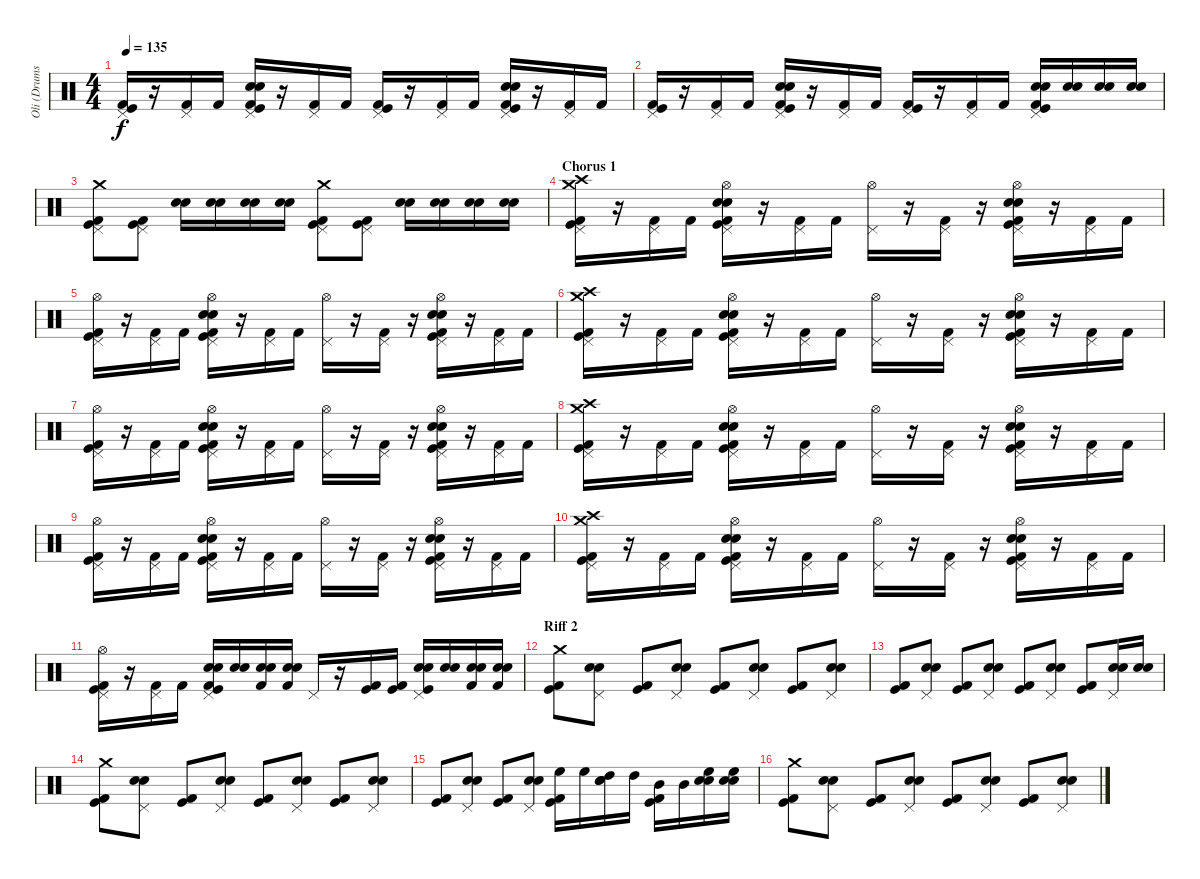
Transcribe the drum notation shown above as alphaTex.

\track ("Oli (Drums)" "Oli (Drums") {instrument percussion}
\staff {score}
\articulation defaults
\ts (4 4)
\tempo 135
\clef neutral
\ks c
("Kick (hit) 2" "Kick (hit)" "Pedal Hi-Hat (hit)").16{dy f} r.16 ("Kick (hit) 2" "Pedal Hi-Hat (hit)").16 "Kick (hit) 2".16 ("Kick (hit) 2" "Snare (hit) 2" "Pedal Hi-Hat (hit)" "Electric Snare (hit)" "Kick (hit)").16 r.16 ("Kick (hit) 2" "Pedal Hi-Hat (hit)").16 "Kick (hit) 2".16 ("Kick (hit) 2" "Kick (hit)" "Pedal Hi-Hat (hit)").16 r.16 ("Kick (hit) 2" "Pedal Hi-Hat (hit)").16 "Kick (hit) 2".16 ("Kick (hit) 2" "Snare (hit) 2" "Pedal Hi-Hat (hit)" "Electric Snare (hit)" "Kick (hit)").16 r.16 ("Kick (hit) 2" "Pedal Hi-Hat (hit)").16 "Kick (hit) 2".16 |
("Kick (hit) 2" "Kick (hit)" "Pedal Hi-Hat (hit)").16 r.16 ("Kick (hit) 2" "Pedal Hi-Hat (hit)").16 "Kick (hit) 2".16 ("Kick (hit) 2" "Snare (hit) 2" "Pedal Hi-Hat (hit)" "Electric Snare (hit)" "Kick (hit)").16 r.16 ("Kick (hit) 2" "Pedal Hi-Hat (hit)").16 "Kick (hit) 2".16 ("Kick (hit) 2" "Kick (hit)" "Pedal Hi-Hat (hit)").16 r.16 ("Kick (hit) 2" "Pedal Hi-Hat (hit)").16 "Kick (hit) 2".16 ("Kick (hit) 2" "Snare (hit) 2" "Pedal Hi-Hat (hit)" "Electric Snare (hit)" "Kick (hit)").16 ("Electric Snare (hit)" "Snare (hit) 2").16 ("Electric Snare (hit)" "Snare (hit) 2").16 ("Electric Snare (hit)" "Snare (hit) 2").16 |
("Kick (hit) 2" "Kick (hit)" "Pedal Hi-Hat (hit)" "Crash medium (hit)").8 ("Kick (hit) 2" "Kick (hit)" "Pedal Hi-Hat (hit)").8 ("Snare (hit) 2" "Electric Snare (hit)").16 ("Snare (hit) 2" "Electric Snare (hit)").16 ("Snare (hit) 2" "Electric Snare (hit)").16 ("Snare (hit) 2" "Electric Snare (hit)").16 ("Kick (hit) 2" "Kick (hit)" "Pedal Hi-Hat (hit)" "Crash medium (hit)").8 ("Kick (hit) 2" "Kick (hit)" "Pedal Hi-Hat (hit)").8 ("Snare (hit) 2" "Electric Snare (hit)").16 ("Snare (hit) 2" "Electric Snare (hit)").16 ("Snare (hit) 2" "Electric Snare (hit)").16 ("Snare (hit) 2" "Electric Snare (hit)").16 |
\section ("" "Chorus 1")
("Kick (hit) 2" "Kick (hit)" "Pedal Hi-Hat (hit)" "Crash medium (hit)" "Crash high (hit)").16 r.16 ("Kick (hit) 2" "Pedal Hi-Hat (hit)").16 "Kick (hit) 2".16 ("Kick (hit) 2" "Snare (hit) 2" "Pedal Hi-Hat (hit)" "Electric Snare (hit)" "Kick (hit)" "Hi-Hat (open)").16 r.16 ("Kick (hit) 2" "Pedal Hi-Hat (hit)").16 "Kick (hit) 2".16 ("Pedal Hi-Hat (hit)" "Hi-Hat (open)").16 r.16 ("Kick (hit) 2" "Pedal Hi-Hat (hit)").16 r.16 ("Kick (hit) 2" "Snare (hit) 2" "Pedal Hi-Hat (hit)" "Electric Snare (hit)" "Kick (hit)" "Hi-Hat (open)").16 r.16 ("Kick (hit) 2" "Pedal Hi-Hat (hit)").16 "Kick (hit) 2".16 |
("Kick (hit) 2" "Kick (hit)" "Pedal Hi-Hat (hit)" "Hi-Hat (open)").16 r.16 ("Kick (hit) 2" "Pedal Hi-Hat (hit)").16 "Kick (hit) 2".16 ("Kick (hit) 2" "Snare (hit) 2" "Pedal Hi-Hat (hit)" "Electric Snare (hit)" "Kick (hit)" "Hi-Hat (open)").16 r.16 ("Kick (hit) 2" "Pedal Hi-Hat (hit)").16 "Kick (hit) 2".16 ("Pedal Hi-Hat (hit)" "Hi-Hat (open)").16 r.16 ("Kick (hit) 2" "Pedal Hi-Hat (hit)").16 r.16 ("Kick (hit) 2" "Snare (hit) 2" "Pedal Hi-Hat (hit)" "Electric Snare (hit)" "Kick (hit)" "Hi-Hat (open)").16 r.16 ("Kick (hit) 2" "Pedal Hi-Hat (hit)").16 "Kick (hit) 2".16 |
("Kick (hit) 2" "Kick (hit)" "Pedal Hi-Hat (hit)" "Crash medium (hit)" "Crash high (hit)").16 r.16 ("Kick (hit) 2" "Pedal Hi-Hat (hit)").16 "Kick (hit) 2".16 ("Kick (hit) 2" "Snare (hit) 2" "Pedal Hi-Hat (hit)" "Electric Snare (hit)" "Kick (hit)" "Hi-Hat (open)").16 r.16 ("Kick (hit) 2" "Pedal Hi-Hat (hit)").16 "Kick (hit) 2".16 ("Pedal Hi-Hat (hit)" "Hi-Hat (open)").16 r.16 ("Kick (hit) 2" "Pedal Hi-Hat (hit)").16 r.16 ("Kick (hit) 2" "Snare (hit) 2" "Pedal Hi-Hat (hit)" "Electric Snare (hit)" "Kick (hit)" "Hi-Hat (open)").16 r.16 ("Kick (hit) 2" "Pedal Hi-Hat (hit)").16 "Kick (hit) 2".16 |
("Kick (hit) 2" "Kick (hit)" "Pedal Hi-Hat (hit)" "Hi-Hat (open)").16 r.16 ("Kick (hit) 2" "Pedal Hi-Hat (hit)").16 "Kick (hit) 2".16 ("Kick (hit) 2" "Snare (hit) 2" "Pedal Hi-Hat (hit)" "Electric Snare (hit)" "Kick (hit)" "Hi-Hat (open)").16 r.16 ("Kick (hit) 2" "Pedal Hi-Hat (hit)").16 "Kick (hit) 2".16 ("Pedal Hi-Hat (hit)" "Hi-Hat (open)").16 r.16 ("Kick (hit) 2" "Pedal Hi-Hat (hit)").16 r.16 ("Kick (hit) 2" "Snare (hit) 2" "Pedal Hi-Hat (hit)" "Electric Snare (hit)" "Kick (hit)" "Hi-Hat (open)").16 r.16 ("Kick (hit) 2" "Pedal Hi-Hat (hit)").16 "Kick (hit) 2".16 |
("Kick (hit) 2" "Kick (hit)" "Pedal Hi-Hat (hit)" "Crash medium (hit)" "Crash high (hit)").16 r.16 ("Kick (hit) 2" "Pedal Hi-Hat (hit)").16 "Kick (hit) 2".16 ("Kick (hit) 2" "Snare (hit) 2" "Pedal Hi-Hat (hit)" "Electric Snare (hit)" "Kick (hit)" "Hi-Hat (open)").16 r.16 ("Kick (hit) 2" "Pedal Hi-Hat (hit)").16 "Kick (hit) 2".16 ("Pedal Hi-Hat (hit)" "Hi-Hat (open)").16 r.16 ("Kick (hit) 2" "Pedal Hi-Hat (hit)").16 r.16 ("Kick (hit) 2" "Snare (hit) 2" "Pedal Hi-Hat (hit)" "Electric Snare (hit)" "Kick (hit)" "Hi-Hat (open)").16 r.16 ("Kick (hit) 2" "Pedal Hi-Hat (hit)").16 "Kick (hit) 2".16 |
("Kick (hit) 2" "Kick (hit)" "Pedal Hi-Hat (hit)" "Hi-Hat (open)").16 r.16 ("Kick (hit) 2" "Pedal Hi-Hat (hit)").16 "Kick (hit) 2".16 ("Kick (hit) 2" "Snare (hit) 2" "Pedal Hi-Hat (hit)" "Electric Snare (hit)" "Kick (hit)" "Hi-Hat (open)").16 r.16 ("Kick (hit) 2" "Pedal Hi-Hat (hit)").16 "Kick (hit) 2".16 ("Pedal Hi-Hat (hit)" "Hi-Hat (open)").16 r.16 ("Kick (hit) 2" "Pedal Hi-Hat (hit)").16 r.16 ("Kick (hit) 2" "Snare (hit) 2" "Pedal Hi-Hat (hit)" "Electric Snare (hit)" "Kick (hit)" "Hi-Hat (open)").16 r.16 ("Kick (hit) 2" "Pedal Hi-Hat (hit)").16 "Kick (hit) 2".16 |
("Kick (hit) 2" "Kick (hit)" "Pedal Hi-Hat (hit)" "Crash medium (hit)" "Crash high (hit)").16 r.16 ("Kick (hit) 2" "Pedal Hi-Hat (hit)").16 "Kick (hit) 2".16 ("Kick (hit) 2" "Snare (hit) 2" "Pedal Hi-Hat (hit)" "Electric Snare (hit)" "Kick (hit)" "Hi-Hat (open)").16 r.16 ("Kick (hit) 2" "Pedal Hi-Hat (hit)").16 "Kick (hit) 2".16 ("Pedal Hi-Hat (hit)" "Hi-Hat (open)").16 r.16 ("Kick (hit) 2" "Pedal Hi-Hat (hit)").16 r.16 ("Kick (hit) 2" "Snare (hit) 2" "Pedal Hi-Hat (hit)" "Electric Snare (hit)" "Kick (hit)" "Hi-Hat (open)").16 r.16 ("Kick (hit) 2" "Pedal Hi-Hat (hit)").16 "Kick (hit) 2".16 |
("Kick (hit) 2" "Kick (hit)" "Pedal Hi-Hat (hit)" "Hi-Hat (open)").16 r.16 ("Kick (hit) 2" "Pedal Hi-Hat (hit)").16 "Kick (hit) 2".16 ("Kick (hit) 2" "Snare (hit) 2" "Pedal Hi-Hat (hit)" "Electric Snare (hit)" "Kick (hit)").16 ("Snare (hit) 2" "Electric Snare (hit)").16 ("Kick (hit) 2" "Snare (hit) 2" "Electric Snare (hit)").16 ("Kick (hit) 2" "Snare (hit) 2" "Electric Snare (hit)").16 "Pedal Hi-Hat (hit)".16 r.16 ("Kick (hit)" "Kick (hit) 2").16 ("Kick (hit)" "Kick (hit) 2").16 ("Snare (hit) 2" "Pedal Hi-Hat (hit)" "Electric Snare (hit)" "Kick (hit)").16 ("Electric Snare (hit)" "Snare (hit) 2").16 ("Kick (hit) 2" "Electric Snare (hit)" "Snare (hit) 2").16 ("Kick (hit) 2" "Electric Snare (hit)" "Snare (hit) 2").16 |
\section ("" "Riff 2")
("Kick (hit) 2" "Kick (hit)" "Crash medium (hit)").8 ("Snare (hit) 2" "Electric Snare (hit)" "Pedal Hi-Hat (hit)").8 ("Kick (hit) 2" "Kick (hit)").8 ("Snare (hit) 2" "Electric Snare (hit)" "Pedal Hi-Hat (hit)").8 ("Kick (hit) 2" "Kick (hit)").8 ("Snare (hit) 2" "Electric Snare (hit)" "Pedal Hi-Hat (hit)").8 ("Kick (hit) 2" "Kick (hit)").8 ("Snare (hit) 2" "Electric Snare (hit)" "Pedal Hi-Hat (hit)").8 |
("Kick (hit) 2" "Kick (hit)").8 ("Snare (hit) 2" "Electric Snare (hit)" "Pedal Hi-Hat (hit)").8 ("Kick (hit) 2" "Kick (hit)").8 ("Snare (hit) 2" "Electric Snare (hit)" "Pedal Hi-Hat (hit)").8 ("Kick (hit) 2" "Kick (hit)").8 ("Snare (hit) 2" "Electric Snare (hit)" "Pedal Hi-Hat (hit)").8 ("Kick (hit) 2" "Kick (hit)").8 ("Snare (hit) 2" "Electric Snare (hit)" "Pedal Hi-Hat (hit)").16 ("Snare (hit) 2" "Electric Snare (hit)").16 |
("Kick (hit) 2" "Kick (hit)" "Crash medium (hit)").8 ("Snare (hit) 2" "Electric Snare (hit)" "Pedal Hi-Hat (hit)").8 ("Kick (hit) 2" "Kick (hit)").8 ("Snare (hit) 2" "Electric Snare (hit)" "Pedal Hi-Hat (hit)").8 ("Kick (hit) 2" "Kick (hit)").8 ("Snare (hit) 2" "Electric Snare (hit)" "Pedal Hi-Hat (hit)").8 ("Kick (hit) 2" "Kick (hit)").8 ("Snare (hit) 2" "Electric Snare (hit)" "Pedal Hi-Hat (hit)").8 |
("Kick (hit) 2" "Kick (hit)").8 ("Snare (hit) 2" "Electric Snare (hit)" "Pedal Hi-Hat (hit)").8 ("Kick (hit) 2" "Kick (hit)").8 ("Snare (hit) 2" "Electric Snare (hit)" "Pedal Hi-Hat (hit)").8 ("Kick (hit) 2" "Kick (hit)" "High Floor Tom (hit)").16 "High Floor Tom (hit)".16 ("Snare (hit) 2" "Electric Snare (hit)" "High Tom (hit)").16 "High Tom (hit)".16 ("Kick (hit) 2" "Kick (hit)" "Mid Tom (hit)").16 "Mid Tom (hit)".16 ("Snare (hit) 2" "Electric Snare (hit)" "High Floor Tom (hit)").16 ("Snare (hit) 2" "Electric Snare (hit)" "High Floor Tom (hit)").16 |
("Kick (hit) 2" "Kick (hit)" "Crash medium (hit)").8 ("Snare (hit) 2" "Electric Snare (hit)" "Pedal Hi-Hat (hit)").8 ("Kick (hit) 2" "Kick (hit)").8 ("Snare (hit) 2" "Electric Snare (hit)" "Pedal Hi-Hat (hit)").8 ("Kick (hit) 2" "Kick (hit)").8 ("Snare (hit) 2" "Electric Snare (hit)" "Pedal Hi-Hat (hit)").8 ("Kick (hit) 2" "Kick (hit)").8 ("Snare (hit) 2" "Electric Snare (hit)" "Pedal Hi-Hat (hit)").8
